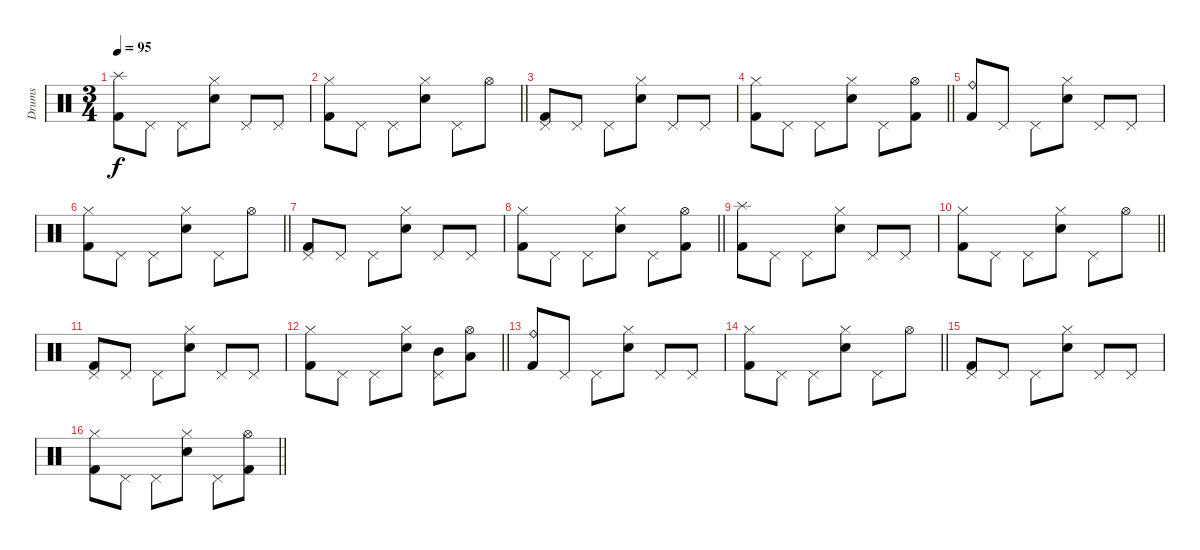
\track ("Drums" "Drums") {instrument percussion}
\staff {score}
\articulation defaults
\ts (3 4)
\tempo 95
\clef neutral
\ks c
("Splash (hit)" "Kick (hit) 2").8{dy f} "Pedal Hi-Hat (hit)".8 "Pedal Hi-Hat (hit)".8 ("Hi-Hat (closed)" "Snare (hit) 2").8 "Pedal Hi-Hat (hit)".8 "Pedal Hi-Hat (hit)".8 |
\barLineRight lightlight
("Hi-Hat (closed)" "Kick (hit) 2").8 "Pedal Hi-Hat (hit)".8 "Pedal Hi-Hat (hit)".8 ("Hi-Hat (closed)" "Snare (hit) 2").8 "Pedal Hi-Hat (hit)".8 "Hi-Hat (open)".8 |
("Pedal Hi-Hat (hit)" "Kick (hit) 2").8 "Pedal Hi-Hat (hit)".8 "Pedal Hi-Hat (hit)".8 ("Hi-Hat (closed)" "Snare (hit) 2").8 "Pedal Hi-Hat (hit)".8 "Pedal Hi-Hat (hit)".8 |
\barLineRight lightlight
("Hi-Hat (closed)" "Kick (hit) 2").8 "Pedal Hi-Hat (hit)".8 "Pedal Hi-Hat (hit)".8 ("Hi-Hat (closed)" "Snare (hit) 2").8 "Pedal Hi-Hat (hit)".8 ("Hi-Hat (open)" "Kick (hit) 2").8 |
("Ride (bell)" "Kick (hit) 2").8 "Pedal Hi-Hat (hit)".8 "Pedal Hi-Hat (hit)".8 ("Hi-Hat (closed)" "Snare (hit) 2").8 "Pedal Hi-Hat (hit)".8 "Pedal Hi-Hat (hit)".8 |
\barLineRight lightlight
("Hi-Hat (closed)" "Kick (hit) 2").8 "Pedal Hi-Hat (hit)".8 "Pedal Hi-Hat (hit)".8 ("Hi-Hat (closed)" "Snare (hit) 2").8 "Pedal Hi-Hat (hit)".8 "Hi-Hat (open)".8 |
("Pedal Hi-Hat (hit)" "Kick (hit) 2").8 "Pedal Hi-Hat (hit)".8 "Pedal Hi-Hat (hit)".8 ("Hi-Hat (closed)" "Snare (hit) 2").8 "Pedal Hi-Hat (hit)".8 "Pedal Hi-Hat (hit)".8 |
\barLineRight lightlight
("Hi-Hat (closed)" "Kick (hit) 2").8 "Pedal Hi-Hat (hit)".8 "Pedal Hi-Hat (hit)".8 ("Hi-Hat (closed)" "Snare (hit) 2").8 "Pedal Hi-Hat (hit)".8 ("Hi-Hat (open)" "Kick (hit) 2").8 |
("Splash (hit)" "Kick (hit) 2").8 "Pedal Hi-Hat (hit)".8 "Pedal Hi-Hat (hit)".8 ("Hi-Hat (closed)" "Snare (hit) 2").8 "Pedal Hi-Hat (hit)".8 "Pedal Hi-Hat (hit)".8 |
\barLineRight lightlight
("Hi-Hat (closed)" "Kick (hit) 2").8 "Pedal Hi-Hat (hit)".8 "Pedal Hi-Hat (hit)".8 ("Hi-Hat (closed)" "Snare (hit) 2").8 "Pedal Hi-Hat (hit)".8 "Hi-Hat (open)".8 |
("Pedal Hi-Hat (hit)" "Kick (hit) 2").8 "Pedal Hi-Hat (hit)".8 "Pedal Hi-Hat (hit)".8 ("Hi-Hat (closed)" "Snare (hit) 2").8 "Pedal Hi-Hat (hit)".8 "Pedal Hi-Hat (hit)".8 |
\barLineRight lightlight
("Hi-Hat (closed)" "Kick (hit) 2").8 "Pedal Hi-Hat (hit)".8 "Pedal Hi-Hat (hit)".8 ("Hi-Hat (closed)" "Snare (hit) 2").8 ("Pedal Hi-Hat (hit)" "Mid Tom (hit)").8 ("Hi-Hat (open)" "Low Tom (hit)").8 |
("Ride (bell)" "Kick (hit) 2").8 "Pedal Hi-Hat (hit)".8 "Pedal Hi-Hat (hit)".8 ("Hi-Hat (closed)" "Snare (hit) 2").8 "Pedal Hi-Hat (hit)".8 "Pedal Hi-Hat (hit)".8 |
\barLineRight lightlight
("Hi-Hat (closed)" "Kick (hit) 2").8 "Pedal Hi-Hat (hit)".8 "Pedal Hi-Hat (hit)".8 ("Hi-Hat (closed)" "Snare (hit) 2").8 "Pedal Hi-Hat (hit)".8 "Hi-Hat (open)".8 |
("Pedal Hi-Hat (hit)" "Kick (hit) 2").8 "Pedal Hi-Hat (hit)".8 "Pedal Hi-Hat (hit)".8 ("Hi-Hat (closed)" "Snare (hit) 2").8 "Pedal Hi-Hat (hit)".8 "Pedal Hi-Hat (hit)".8 |
\barLineRight lightlight
("Hi-Hat (closed)" "Kick (hit) 2").8 "Pedal Hi-Hat (hit)".8 "Pedal Hi-Hat (hit)".8 ("Hi-Hat (closed)" "Snare (hit) 2").8 "Pedal Hi-Hat (hit)".8 ("Hi-Hat (open)" "Kick (hit) 2").8
